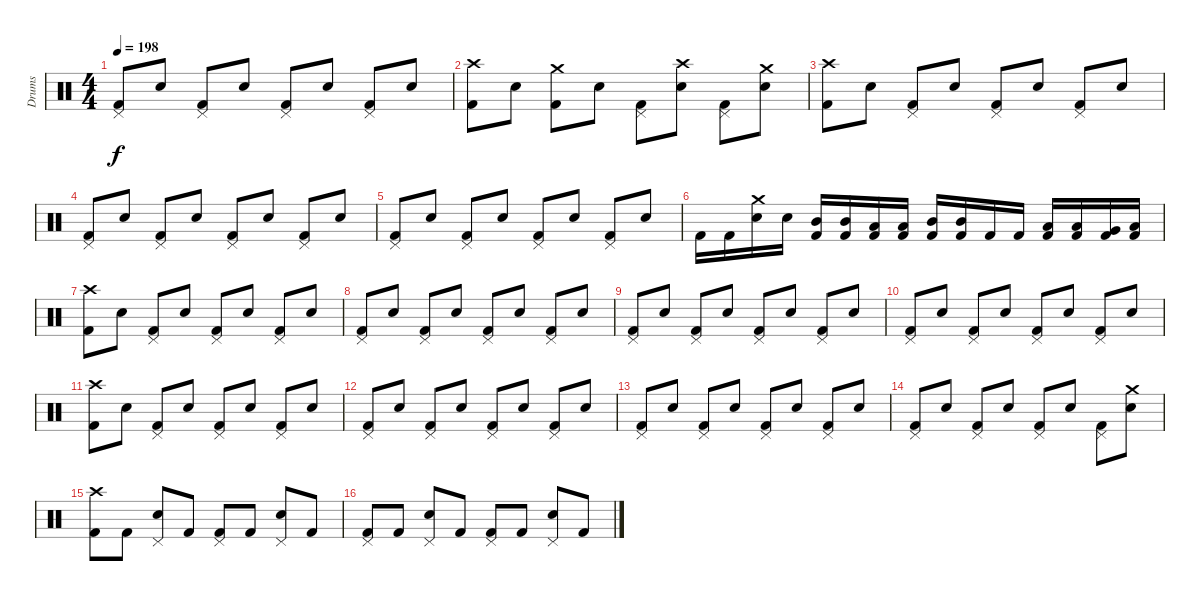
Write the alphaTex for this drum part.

\track ("Drums" "Drums") {instrument percussion}
\staff {score}
\articulation defaults
\ts (4 4)
\tempo 198
\clef neutral
\ks c
("Pedal Hi-Hat (hit)" "Kick (hit) 2").8{dy f} "Electric Snare (hit)".8 ("Pedal Hi-Hat (hit)" "Kick (hit) 2").8 "Electric Snare (hit)".8 ("Pedal Hi-Hat (hit)" "Kick (hit) 2").8 "Electric Snare (hit)".8 ("Pedal Hi-Hat (hit)" "Kick (hit) 2").8 "Electric Snare (hit)".8 |
("Crash high (hit)" "Kick (hit) 2").8 "Electric Snare (hit)".8 ("Crash medium (hit)" "Kick (hit) 2").8 "Electric Snare (hit)".8 ("Pedal Hi-Hat (hit)" "Kick (hit) 2").8 ("Crash high (hit)" "Electric Snare (hit)").8 ("Pedal Hi-Hat (hit)" "Kick (hit) 2").8 ("Crash medium (hit)" "Electric Snare (hit)").8 |
("Crash high (hit)" "Kick (hit) 2").8 "Electric Snare (hit)".8 ("Pedal Hi-Hat (hit)" "Kick (hit) 2").8 "Electric Snare (hit)".8 ("Pedal Hi-Hat (hit)" "Kick (hit) 2").8 "Electric Snare (hit)".8 ("Pedal Hi-Hat (hit)" "Kick (hit) 2").8 "Electric Snare (hit)".8 |
("Pedal Hi-Hat (hit)" "Kick (hit) 2").8 "Electric Snare (hit)".8 ("Pedal Hi-Hat (hit)" "Kick (hit) 2").8 "Electric Snare (hit)".8 ("Pedal Hi-Hat (hit)" "Kick (hit) 2").8 "Electric Snare (hit)".8 ("Pedal Hi-Hat (hit)" "Kick (hit) 2").8 "Electric Snare (hit)".8 |
("Pedal Hi-Hat (hit)" "Kick (hit) 2").8 "Electric Snare (hit)".8 ("Pedal Hi-Hat (hit)" "Kick (hit) 2").8 "Electric Snare (hit)".8 ("Pedal Hi-Hat (hit)" "Kick (hit) 2").8 "Electric Snare (hit)".8 ("Pedal Hi-Hat (hit)" "Kick (hit) 2").8 "Electric Snare (hit)".8 |
"Kick (hit) 2".16 "Kick (hit) 2".16 ("Crash medium (hit)" "Electric Snare (hit)").16 "Electric Snare (hit)".16 ("Mid Tom (hit)" "Kick (hit) 2").16 ("Mid Tom (hit)" "Kick (hit) 2").16 ("Low Tom (hit)" "Kick (hit) 2").16 ("Low Tom (hit)" "Kick (hit) 2").16 ("Mid Tom (hit)" "Kick (hit) 2").16 ("Mid Tom (hit)" "Kick (hit) 2").16 "Kick (hit) 2".16 "Kick (hit) 2".16 ("Low Tom (hit)" "Kick (hit) 2").16 ("Low Tom (hit)" "Kick (hit) 2").16 ("Very Low Tom (hit)" "Kick (hit) 2").16 ("Low Floor Tom (hit)" "Kick (hit) 2").16 |
("Crash high (hit)" "Kick (hit) 2").8 "Electric Snare (hit)".8 ("Pedal Hi-Hat (hit)" "Kick (hit) 2").8 "Electric Snare (hit)".8 ("Pedal Hi-Hat (hit)" "Kick (hit) 2").8 "Electric Snare (hit)".8 ("Pedal Hi-Hat (hit)" "Kick (hit) 2").8 "Electric Snare (hit)".8 |
("Pedal Hi-Hat (hit)" "Kick (hit) 2").8 "Electric Snare (hit)".8 ("Pedal Hi-Hat (hit)" "Kick (hit) 2").8 "Electric Snare (hit)".8 ("Pedal Hi-Hat (hit)" "Kick (hit) 2").8 "Electric Snare (hit)".8 ("Pedal Hi-Hat (hit)" "Kick (hit) 2").8 "Electric Snare (hit)".8 |
("Pedal Hi-Hat (hit)" "Kick (hit) 2").8 "Electric Snare (hit)".8 ("Pedal Hi-Hat (hit)" "Kick (hit) 2").8 "Electric Snare (hit)".8 ("Pedal Hi-Hat (hit)" "Kick (hit) 2").8 "Electric Snare (hit)".8 ("Pedal Hi-Hat (hit)" "Kick (hit) 2").8 "Electric Snare (hit)".8 |
("Pedal Hi-Hat (hit)" "Kick (hit) 2").8 "Electric Snare (hit)".8 ("Pedal Hi-Hat (hit)" "Kick (hit) 2").8 "Electric Snare (hit)".8 ("Pedal Hi-Hat (hit)" "Kick (hit) 2").8 "Electric Snare (hit)".8 ("Pedal Hi-Hat (hit)" "Kick (hit) 2").8 "Electric Snare (hit)".8 |
("Crash high (hit)" "Kick (hit) 2").8 "Electric Snare (hit)".8 ("Pedal Hi-Hat (hit)" "Kick (hit) 2").8 "Electric Snare (hit)".8 ("Pedal Hi-Hat (hit)" "Kick (hit) 2").8 "Electric Snare (hit)".8 ("Pedal Hi-Hat (hit)" "Kick (hit) 2").8 "Electric Snare (hit)".8 |
("Pedal Hi-Hat (hit)" "Kick (hit) 2").8 "Electric Snare (hit)".8 ("Pedal Hi-Hat (hit)" "Kick (hit) 2").8 "Electric Snare (hit)".8 ("Pedal Hi-Hat (hit)" "Kick (hit) 2").8 "Electric Snare (hit)".8 ("Pedal Hi-Hat (hit)" "Kick (hit) 2").8 "Electric Snare (hit)".8 |
("Pedal Hi-Hat (hit)" "Kick (hit) 2").8 "Electric Snare (hit)".8 ("Pedal Hi-Hat (hit)" "Kick (hit) 2").8 "Electric Snare (hit)".8 ("Pedal Hi-Hat (hit)" "Kick (hit) 2").8 "Electric Snare (hit)".8 ("Pedal Hi-Hat (hit)" "Kick (hit) 2").8 "Electric Snare (hit)".8 |
("Pedal Hi-Hat (hit)" "Kick (hit) 2").8 "Electric Snare (hit)".8 ("Pedal Hi-Hat (hit)" "Kick (hit) 2").8 "Electric Snare (hit)".8 ("Pedal Hi-Hat (hit)" "Kick (hit) 2").8 "Electric Snare (hit)".8 ("Pedal Hi-Hat (hit)" "Kick (hit) 2").8 ("Crash medium (hit)" "Electric Snare (hit)").8 |
("Crash high (hit)" "Kick (hit) 2").8 "Kick (hit) 2".8 ("Pedal Hi-Hat (hit)" "Electric Snare (hit)").8 "Kick (hit) 2".8 ("Pedal Hi-Hat (hit)" "Kick (hit) 2").8 "Kick (hit) 2".8 ("Pedal Hi-Hat (hit)" "Electric Snare (hit)").8 "Kick (hit) 2".8 |
("Pedal Hi-Hat (hit)" "Kick (hit) 2").8 "Kick (hit) 2".8 ("Pedal Hi-Hat (hit)" "Electric Snare (hit)").8 "Kick (hit) 2".8 ("Pedal Hi-Hat (hit)" "Kick (hit) 2").8 "Kick (hit) 2".8 ("Pedal Hi-Hat (hit)" "Electric Snare (hit)").8 "Kick (hit) 2".8
